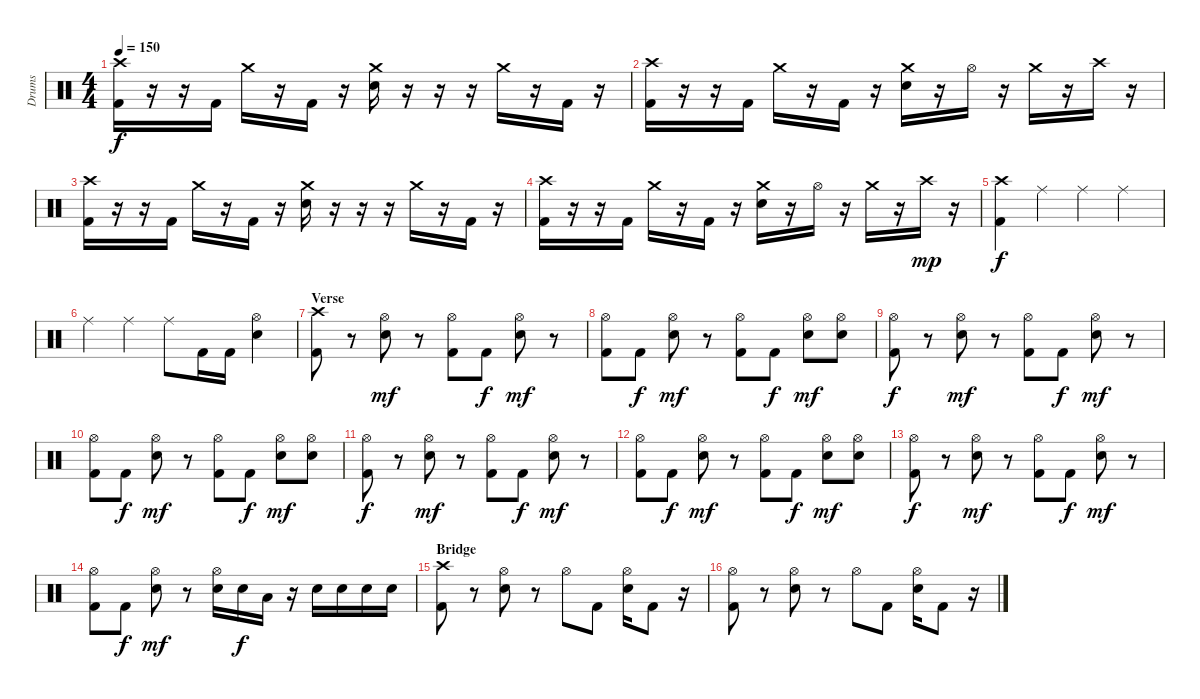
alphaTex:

\track ("Drums" "Drums") {instrument percussion}
\staff {score}
\articulation defaults
\ts (4 4)
\tempo 150
\clef neutral
\ks c
("Crash high (hit)" "Kick (hit) 2").16{dy f} r.16 r.16 "Kick (hit) 2".16 "Crash medium (hit)".16 r.16 "Kick (hit) 2".16 r.16 ("Crash medium (hit)" "Electric Snare (hit)").16 r.16 r.16 r.16 "Crash medium (hit)".16 r.16 "Kick (hit) 2".16 r.16 |
("Crash high (hit)" "Kick (hit) 2").16 r.16 r.16 "Kick (hit) 2".16 "Crash medium (hit)".16 r.16 "Kick (hit) 2".16 r.16 ("Crash medium (hit)" "Electric Snare (hit)").16 r.16 "Hi-Hat (open)".16 r.16 "Crash medium (hit)".16 r.16 "Crash high (hit)".16 r.16 |
("Crash high (hit)" "Kick (hit) 2").16 r.16 r.16 "Kick (hit) 2".16 "Crash medium (hit)".16 r.16 "Kick (hit) 2".16 r.16 ("Crash medium (hit)" "Electric Snare (hit)").16 r.16 r.16 r.16 "Crash medium (hit)".16 r.16 "Kick (hit) 2".16 r.16 |
("Crash high (hit)" "Kick (hit) 2").16 r.16 r.16 "Kick (hit) 2".16 "Crash medium (hit)".16 r.16 "Kick (hit) 2".16 r.16 ("Crash medium (hit)" "Electric Snare (hit)").16 r.16 "Hi-Hat (open)".16 r.16 "Crash medium (hit)".16 r.16 "Crash high (hit)".16{dy mp} r.16 |
("Crash high (hit)" "Kick (hit) 2").4{dy f} "Ride (middle)".4 "Ride (middle)".4 "Ride (middle)".4 |
"Ride (middle)".4 "Ride (middle)".4 "Ride (middle)".8 "Kick (hit) 2".16 "Kick (hit) 2".16 ("Hi-Hat (open)" "Electric Snare (hit)").4 |
\section ("" "Verse")
("Crash high (hit)" "Kick (hit) 2").8 r.8 ("Hi-Hat (open)" "Electric Snare (hit)").8{dy mf} r.8 ("Hi-Hat (open)" "Kick (hit) 2").8 "Kick (hit) 2".8{dy f} ("Hi-Hat (open)" "Electric Snare (hit)").8{dy mf} r.8 |
("Hi-Hat (open)" "Kick (hit) 2").8 "Kick (hit) 2".8{dy f} ("Hi-Hat (open)" "Electric Snare (hit)").8{dy mf} r.8 ("Hi-Hat (open)" "Kick (hit) 2").8 "Kick (hit) 2".8{dy f} ("Hi-Hat (open)" "Electric Snare (hit)").8{dy mf} ("Hi-Hat (open)" "Electric Snare (hit)").8 |
("Hi-Hat (open)" "Kick (hit) 2").8{dy f} r.8 ("Hi-Hat (open)" "Electric Snare (hit)").8{dy mf} r.8 ("Hi-Hat (open)" "Kick (hit) 2").8 "Kick (hit) 2".8{dy f} ("Hi-Hat (open)" "Electric Snare (hit)").8{dy mf} r.8 |
("Hi-Hat (open)" "Kick (hit) 2").8 "Kick (hit) 2".8{dy f} ("Hi-Hat (open)" "Electric Snare (hit)").8{dy mf} r.8 ("Hi-Hat (open)" "Kick (hit) 2").8 "Kick (hit) 2".8{dy f} ("Hi-Hat (open)" "Electric Snare (hit)").8{dy mf} ("Hi-Hat (open)" "Electric Snare (hit)").8 |
("Hi-Hat (open)" "Kick (hit) 2").8{dy f} r.8 ("Hi-Hat (open)" "Electric Snare (hit)").8{dy mf} r.8 ("Hi-Hat (open)" "Kick (hit) 2").8 "Kick (hit) 2".8{dy f} ("Hi-Hat (open)" "Electric Snare (hit)").8{dy mf} r.8 |
("Hi-Hat (open)" "Kick (hit) 2").8 "Kick (hit) 2".8{dy f} ("Hi-Hat (open)" "Electric Snare (hit)").8{dy mf} r.8 ("Hi-Hat (open)" "Kick (hit) 2").8 "Kick (hit) 2".8{dy f} ("Hi-Hat (open)" "Electric Snare (hit)").8{dy mf} ("Hi-Hat (open)" "Electric Snare (hit)").8 |
("Hi-Hat (open)" "Kick (hit) 2").8{dy f} r.8 ("Hi-Hat (open)" "Electric Snare (hit)").8{dy mf} r.8 ("Hi-Hat (open)" "Kick (hit) 2").8 "Kick (hit) 2".8{dy f} ("Hi-Hat (open)" "Electric Snare (hit)").8{dy mf} r.8 |
("Hi-Hat (open)" "Kick (hit) 2").8 "Kick (hit) 2".8{dy f} ("Hi-Hat (open)" "Electric Snare (hit)").8{dy mf} r.8 ("Hi-Hat (open)" "Electric Snare (hit)").16 "Electric Snare (hit)".16{dy f} "Low Tom (hit)".16 r.16 "Electric Snare (hit)".16 "Electric Snare (hit)".16 "Electric Snare (hit)".16 "Electric Snare (hit)".16 |
\section ("" "Bridge")
("Crash high (hit)" "Kick (hit) 2").8 r.8 ("Hi-Hat (open)" "Electric Snare (hit)").8 r.8 "Hi-Hat (open)".8 "Kick (hit) 2".8 ("Hi-Hat (open)" "Electric Snare (hit)").16 "Kick (hit) 2".8 r.16 |
("Hi-Hat (open)" "Kick (hit) 2").8 r.8 ("Hi-Hat (open)" "Electric Snare (hit)").8 r.8 "Hi-Hat (open)".8 "Kick (hit) 2".8 ("Hi-Hat (open)" "Electric Snare (hit)").16 "Kick (hit) 2".8 r.16
